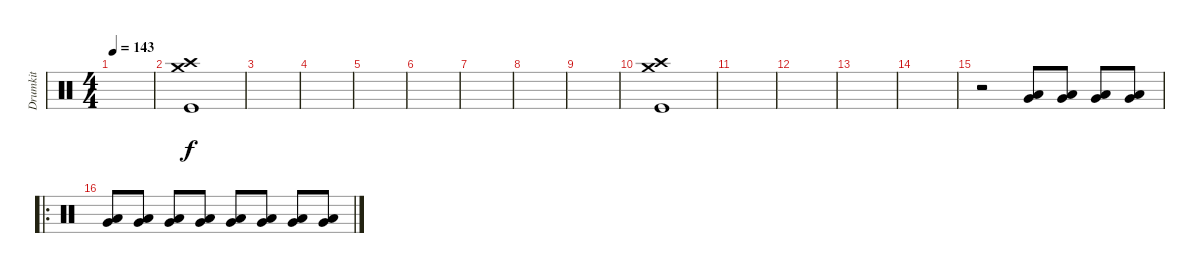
\track ("Drumkit" "Drumkit") {instrument percussion}
\staff {score}
\articulation defaults
\ts (4 4)
\tempo 143
\clef neutral
\ks c
|
("Kick (hit)" "Crash high (hit)" "Crash medium (hit)").1 |
|
|
|
|
|
|
|
("Kick (hit)" "Crash high (hit)" "Crash medium (hit)").1 |
|
|
|
|
r.2 ("Very Low Tom (hit)" "Low Floor Tom (hit)").8 ("Very Low Tom (hit)" "Low Floor Tom (hit)").8 ("Very Low Tom (hit)" "Low Floor Tom (hit)").8 ("Very Low Tom (hit)" "Low Floor Tom (hit)").8 |
\ro
("Low Floor Tom (hit)" "Very Low Tom (hit)").8 ("Very Low Tom (hit)" "Low Floor Tom (hit)").8 ("Very Low Tom (hit)" "Low Floor Tom (hit)").8 ("Very Low Tom (hit)" "Low Floor Tom (hit)").8 ("Very Low Tom (hit)" "Low Floor Tom (hit)").8 ("Very Low Tom (hit)" "Low Floor Tom (hit)").8 ("Very Low Tom (hit)" "Low Floor Tom (hit)").8 ("Very Low Tom (hit)" "Low Floor Tom (hit)").8
